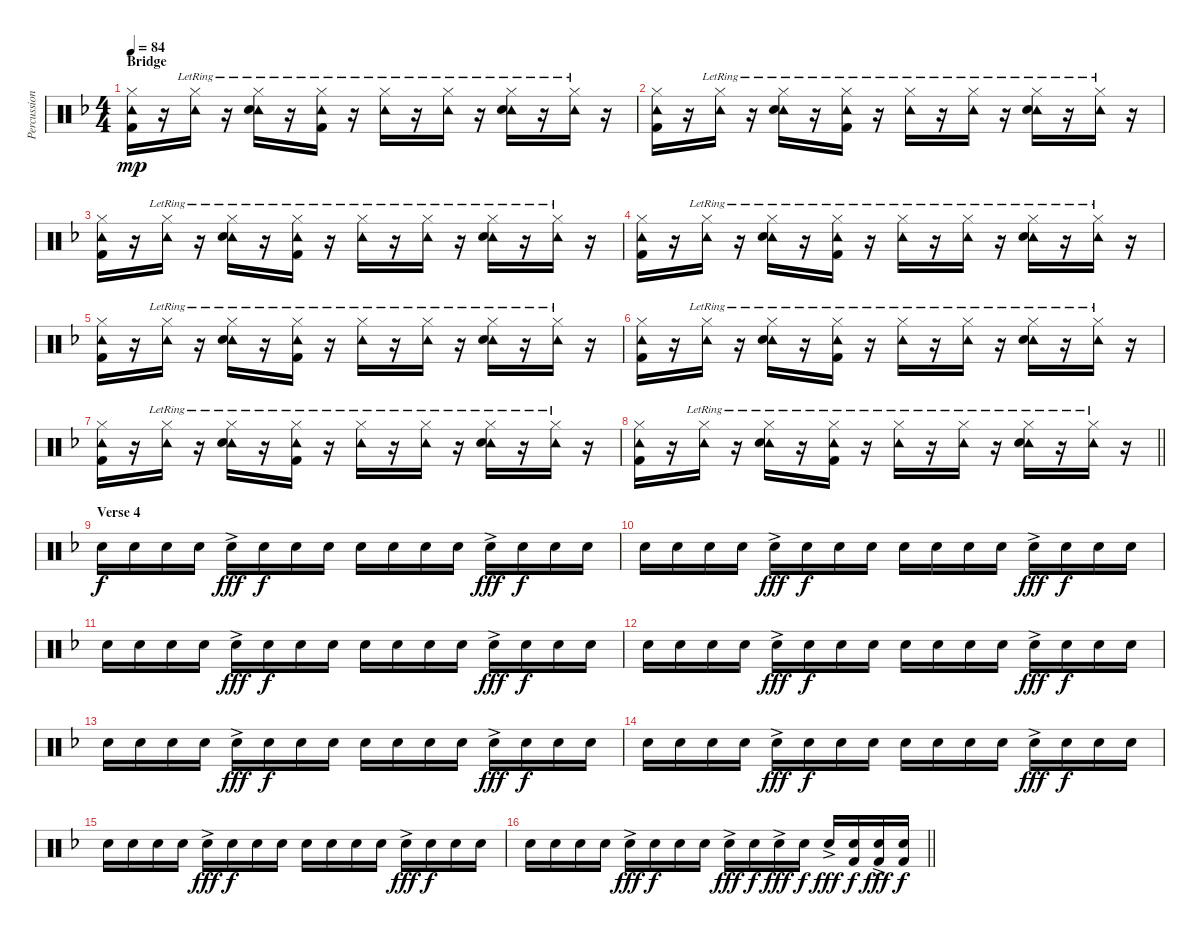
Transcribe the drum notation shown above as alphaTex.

\track ("Percussion" "Percussion") {instrument percussion}
\staff {score}
\articulation defaults
\ts (4 4)
\section ("" "Bridge")
\tempo 84
\clef neutral
\ks f
("Hi-Hat (closed)" "Tambourine (hit)" "Kick (hit) 2").16{dy mp} r.16 ("Hi-Hat (closed)" "Tambourine (hit)"{lr}).16 r.16 ("Hi-Hat (closed)" "Tambourine (hit)"{lr} "Snare (hit) 2").16 r.16 ("Hi-Hat (closed)" "Tambourine (hit)"{lr} "Kick (hit) 2").16 r.16 ("Hi-Hat (closed)" "Tambourine (hit)"{lr}).16 r.16 ("Hi-Hat (closed)" "Tambourine (hit)"{lr}).16 r.16 ("Hi-Hat (closed)" "Tambourine (hit)"{lr} "Snare (hit) 2").16 r.16 ("Hi-Hat (closed)" "Tambourine (hit)"{lr}).16 r.16 |
("Hi-Hat (closed)" "Tambourine (hit)" "Kick (hit) 2").16 r.16 ("Hi-Hat (closed)" "Tambourine (hit)"{lr}).16 r.16 ("Hi-Hat (closed)" "Tambourine (hit)"{lr} "Snare (hit) 2").16 r.16 ("Hi-Hat (closed)" "Tambourine (hit)"{lr} "Kick (hit) 2").16 r.16 ("Hi-Hat (closed)" "Tambourine (hit)"{lr}).16 r.16 ("Hi-Hat (closed)" "Tambourine (hit)"{lr}).16 r.16 ("Hi-Hat (closed)" "Tambourine (hit)"{lr} "Snare (hit) 2").16 r.16 ("Hi-Hat (closed)" "Tambourine (hit)"{lr}).16 r.16 |
("Hi-Hat (closed)" "Tambourine (hit)" "Kick (hit) 2").16 r.16 ("Hi-Hat (closed)" "Tambourine (hit)"{lr}).16 r.16 ("Hi-Hat (closed)" "Tambourine (hit)"{lr} "Snare (hit) 2").16 r.16 ("Hi-Hat (closed)" "Tambourine (hit)"{lr} "Kick (hit) 2").16 r.16 ("Hi-Hat (closed)" "Tambourine (hit)"{lr}).16 r.16 ("Hi-Hat (closed)" "Tambourine (hit)"{lr}).16 r.16 ("Hi-Hat (closed)" "Tambourine (hit)"{lr} "Snare (hit) 2").16 r.16 ("Hi-Hat (closed)" "Tambourine (hit)"{lr}).16 r.16 |
("Hi-Hat (closed)" "Tambourine (hit)" "Kick (hit) 2").16 r.16 ("Hi-Hat (closed)" "Tambourine (hit)"{lr}).16 r.16 ("Hi-Hat (closed)" "Tambourine (hit)"{lr} "Snare (hit) 2").16 r.16 ("Hi-Hat (closed)" "Tambourine (hit)"{lr} "Kick (hit) 2").16 r.16 ("Hi-Hat (closed)" "Tambourine (hit)"{lr}).16 r.16 ("Hi-Hat (closed)" "Tambourine (hit)"{lr}).16 r.16 ("Hi-Hat (closed)" "Tambourine (hit)"{lr} "Snare (hit) 2").16 r.16 ("Hi-Hat (closed)" "Tambourine (hit)"{lr}).16 r.16 |
("Hi-Hat (closed)" "Tambourine (hit)" "Kick (hit) 2").16 r.16 ("Hi-Hat (closed)" "Tambourine (hit)"{lr}).16 r.16 ("Hi-Hat (closed)" "Tambourine (hit)"{lr} "Snare (hit) 2").16 r.16 ("Hi-Hat (closed)" "Tambourine (hit)"{lr} "Kick (hit) 2").16 r.16 ("Hi-Hat (closed)" "Tambourine (hit)"{lr}).16 r.16 ("Hi-Hat (closed)" "Tambourine (hit)"{lr}).16 r.16 ("Hi-Hat (closed)" "Tambourine (hit)"{lr} "Snare (hit) 2").16 r.16 ("Hi-Hat (closed)" "Tambourine (hit)"{lr}).16 r.16 |
("Hi-Hat (closed)" "Tambourine (hit)" "Kick (hit) 2").16 r.16 ("Hi-Hat (closed)" "Tambourine (hit)"{lr}).16 r.16 ("Hi-Hat (closed)" "Tambourine (hit)"{lr} "Snare (hit) 2").16 r.16 ("Hi-Hat (closed)" "Tambourine (hit)"{lr} "Kick (hit) 2").16 r.16 ("Hi-Hat (closed)" "Tambourine (hit)"{lr}).16 r.16 ("Hi-Hat (closed)" "Tambourine (hit)"{lr}).16 r.16 ("Hi-Hat (closed)" "Tambourine (hit)"{lr} "Snare (hit) 2").16 r.16 ("Hi-Hat (closed)" "Tambourine (hit)"{lr}).16 r.16 |
("Hi-Hat (closed)" "Tambourine (hit)" "Kick (hit) 2").16 r.16 ("Hi-Hat (closed)" "Tambourine (hit)"{lr}).16 r.16 ("Hi-Hat (closed)" "Tambourine (hit)"{lr} "Snare (hit) 2").16 r.16 ("Hi-Hat (closed)" "Tambourine (hit)"{lr} "Kick (hit) 2").16 r.16 ("Hi-Hat (closed)" "Tambourine (hit)"{lr}).16 r.16 ("Hi-Hat (closed)" "Tambourine (hit)"{lr}).16 r.16 ("Hi-Hat (closed)" "Tambourine (hit)"{lr} "Snare (hit) 2").16 r.16 ("Hi-Hat (closed)" "Tambourine (hit)"{lr}).16 r.16 |
\barLineRight lightlight
("Hi-Hat (closed)" "Tambourine (hit)" "Kick (hit) 2").16 r.16 ("Hi-Hat (closed)" "Tambourine (hit)"{lr}).16 r.16 ("Hi-Hat (closed)" "Tambourine (hit)"{lr} "Snare (hit) 2").16 r.16 ("Hi-Hat (closed)" "Tambourine (hit)"{lr} "Kick (hit) 2").16 r.16 ("Hi-Hat (closed)" "Tambourine (hit)"{lr}).16 r.16 ("Hi-Hat (closed)" "Tambourine (hit)"{lr}).16 r.16 ("Hi-Hat (closed)" "Tambourine (hit)"{lr} "Snare (hit) 2").16 r.16 ("Hi-Hat (closed)" "Tambourine (hit)"{lr}).16 r.16 |
\section ("" "Verse 4")
"Snare (hit) 2".16{dy f volume 6} "Snare (hit) 2".16 "Snare (hit) 2".16 "Snare (hit) 2".16 "Snare (hit) 2"{ac}.16{dy fff} "Snare (hit) 2".16{dy f} "Snare (hit) 2".16 "Snare (hit) 2".16 "Snare (hit) 2".16 "Snare (hit) 2".16 "Snare (hit) 2".16 "Snare (hit) 2".16 "Snare (hit) 2"{ac}.16{dy fff} "Snare (hit) 2".16{dy f} "Snare (hit) 2".16 "Snare (hit) 2".16 |
"Snare (hit) 2".16 "Snare (hit) 2".16 "Snare (hit) 2".16 "Snare (hit) 2".16 "Snare (hit) 2"{ac}.16{dy fff} "Snare (hit) 2".16{dy f} "Snare (hit) 2".16 "Snare (hit) 2".16 "Snare (hit) 2".16 "Snare (hit) 2".16 "Snare (hit) 2".16 "Snare (hit) 2".16 "Snare (hit) 2"{ac}.16{dy fff} "Snare (hit) 2".16{dy f} "Snare (hit) 2".16 "Snare (hit) 2".16 |
"Snare (hit) 2".16 "Snare (hit) 2".16 "Snare (hit) 2".16 "Snare (hit) 2".16 "Snare (hit) 2"{ac}.16{dy fff} "Snare (hit) 2".16{dy f} "Snare (hit) 2".16 "Snare (hit) 2".16 "Snare (hit) 2".16 "Snare (hit) 2".16 "Snare (hit) 2".16 "Snare (hit) 2".16 "Snare (hit) 2"{ac}.16{dy fff} "Snare (hit) 2".16{dy f} "Snare (hit) 2".16 "Snare (hit) 2".16 |
"Snare (hit) 2".16 "Snare (hit) 2".16 "Snare (hit) 2".16 "Snare (hit) 2".16 "Snare (hit) 2"{ac}.16{dy fff} "Snare (hit) 2".16{dy f} "Snare (hit) 2".16 "Snare (hit) 2".16 "Snare (hit) 2".16 "Snare (hit) 2".16 "Snare (hit) 2".16 "Snare (hit) 2".16 "Snare (hit) 2"{ac}.16{dy fff} "Snare (hit) 2".16{dy f} "Snare (hit) 2".16 "Snare (hit) 2".16 |
"Snare (hit) 2".16 "Snare (hit) 2".16 "Snare (hit) 2".16 "Snare (hit) 2".16 "Snare (hit) 2"{ac}.16{dy fff} "Snare (hit) 2".16{dy f} "Snare (hit) 2".16 "Snare (hit) 2".16 "Snare (hit) 2".16 "Snare (hit) 2".16 "Snare (hit) 2".16 "Snare (hit) 2".16 "Snare (hit) 2"{ac}.16{dy fff} "Snare (hit) 2".16{dy f} "Snare (hit) 2".16 "Snare (hit) 2".16 |
"Snare (hit) 2".16 "Snare (hit) 2".16 "Snare (hit) 2".16 "Snare (hit) 2".16 "Snare (hit) 2"{ac}.16{dy fff} "Snare (hit) 2".16{dy f} "Snare (hit) 2".16 "Snare (hit) 2".16 "Snare (hit) 2".16 "Snare (hit) 2".16 "Snare (hit) 2".16 "Snare (hit) 2".16 "Snare (hit) 2"{ac}.16{dy fff} "Snare (hit) 2".16{dy f} "Snare (hit) 2".16 "Snare (hit) 2".16 |
"Snare (hit) 2".16 "Snare (hit) 2".16 "Snare (hit) 2".16 "Snare (hit) 2".16 "Snare (hit) 2"{ac}.16{dy fff} "Snare (hit) 2".16{dy f} "Snare (hit) 2".16 "Snare (hit) 2".16 "Snare (hit) 2".16 "Snare (hit) 2".16 "Snare (hit) 2".16 "Snare (hit) 2".16 "Snare (hit) 2"{ac}.16{dy fff} "Snare (hit) 2".16{dy f} "Snare (hit) 2".16 "Snare (hit) 2".16 |
\barLineRight lightlight "Snare (hit) 2".16 "Snare (hit) 2".16 "Snare (hit) 2".16 "Snare (hit) 2".16 "Snare (hit) 2"{ac}.16{dy fff} "Snare (hit) 2".16{dy f} "Snare (hit) 2".16 "Snare (hit) 2".16 "Snare (hit) 2"{ac}.16{dy fff} "Snare (hit) 2".16{dy f} "Snare (hit) 2"{ac}.16{dy fff} "Snare (hit) 2".16{dy f} "Snare (hit) 2"{ac}.16{dy fff}
("Snare (hit) 2" "Kick (hit) 2").16{dy f volume 9} ("Snare (hit) 2"{ac} "Kick (hit) 2").16{dy fff} ("Snare (hit) 2" "Kick (hit) 2").16{dy f}
